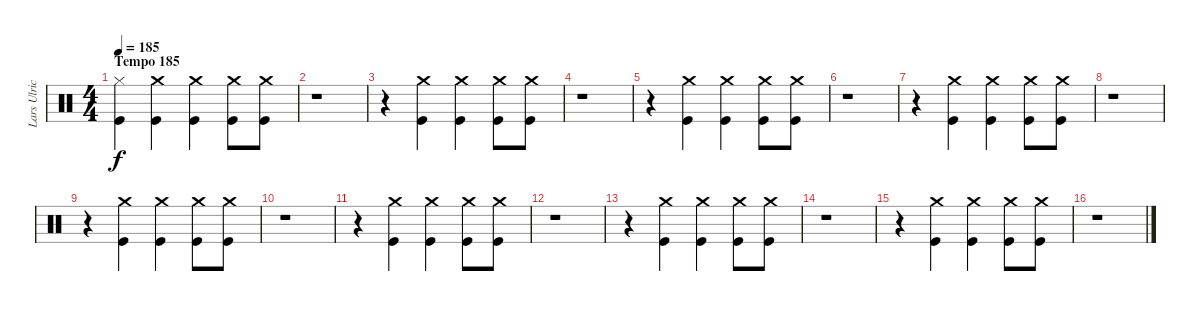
\track ("Lars Ulrich (Drums)" "Lars Ulric") {instrument percussion}
\staff {score}
\articulation defaults
\ts (4 4)
\section ("" "Tempo 185")
\tempo 185
\clef neutral
\ks c
("Kick (hit)" "Hi-Hat (closed)").4{dy f} ("Crash medium (hit)" "Kick (hit)").4 ("Crash medium (hit)" "Kick (hit)").4 ("Kick (hit)" "Crash medium (hit)").8 ("Kick (hit)" "Crash medium (hit)").8 |
r.1 |
r.4 ("Kick (hit)" "Crash medium (hit)").4 ("Kick (hit)" "Crash medium (hit)").4 ("Kick (hit)" "Crash medium (hit)").8 ("Kick (hit)" "Crash medium (hit)").8 |
r.1 |
r.4 ("Crash medium (hit)" "Kick (hit)").4 ("Crash medium (hit)" "Kick (hit)").4 ("Kick (hit)" "Crash medium (hit)").8 ("Kick (hit)" "Crash medium (hit)").8 |
r.1 |
r.4 ("Kick (hit)" "Crash medium (hit)").4 ("Kick (hit)" "Crash medium (hit)").4 ("Kick (hit)" "Crash medium (hit)").8 ("Kick (hit)" "Crash medium (hit)").8 |
r.1 |
r.4 ("Crash medium (hit)" "Kick (hit)").4 ("Crash medium (hit)" "Kick (hit)").4 ("Kick (hit)" "Crash medium (hit)").8 ("Kick (hit)" "Crash medium (hit)").8 |
r.1 |
r.4 ("Kick (hit)" "Crash medium (hit)").4 ("Kick (hit)" "Crash medium (hit)").4 ("Kick (hit)" "Crash medium (hit)").8 ("Kick (hit)" "Crash medium (hit)").8 |
r.1 |
r.4 ("Crash medium (hit)" "Kick (hit)").4 ("Crash medium (hit)" "Kick (hit)").4 ("Kick (hit)" "Crash medium (hit)").8 ("Kick (hit)" "Crash medium (hit)").8 |
r.1 |
r.4 ("Kick (hit)" "Crash medium (hit)").4 ("Kick (hit)" "Crash medium (hit)").4 ("Kick (hit)" "Crash medium (hit)").8 ("Kick (hit)" "Crash medium (hit)").8 |
r.1
